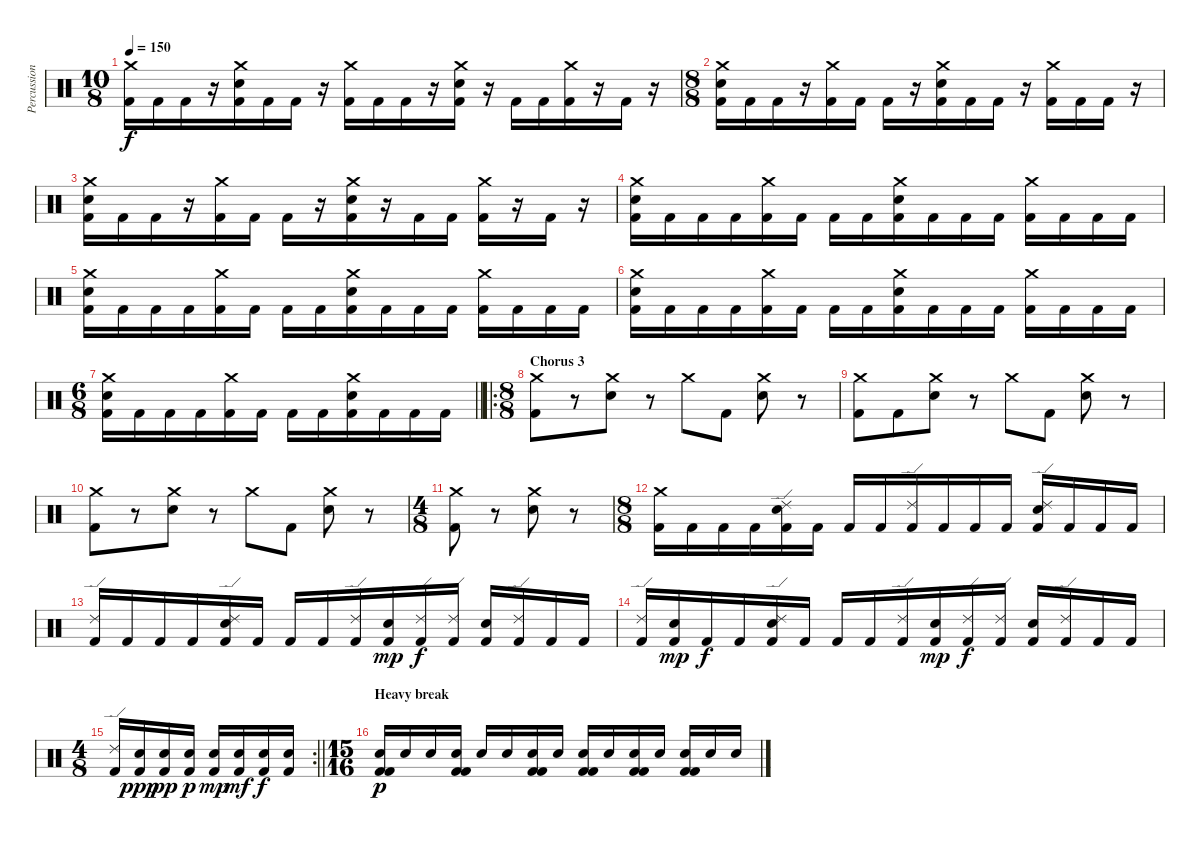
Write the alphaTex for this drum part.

\track ("Percussions" "Percussion") {instrument percussion}
\staff {score}
\articulation defaults
\ts (10 8)
\tempo 150
\clef neutral
\ks c
("Crash medium (hit)" "Kick (hit) 2").16{dy f} "Kick (hit) 2".16 "Kick (hit) 2".16 r.16 ("Crash medium (hit)" "Electric Snare (hit)" "Kick (hit) 2").16 "Kick (hit) 2".16 "Kick (hit) 2".16 r.16 ("Crash medium (hit)" "Kick (hit) 2").16 "Kick (hit) 2".16 "Kick (hit) 2".16 r.16 ("Crash medium (hit)" "Electric Snare (hit)" "Kick (hit) 2").16 r.16 "Kick (hit) 2".16 "Kick (hit) 2".16 ("Crash medium (hit)" "Kick (hit) 2").16 r.16 "Kick (hit) 2".16 r.16 |
\ts (8 8)
("Crash medium (hit)" "Electric Snare (hit)" "Kick (hit) 2").16 "Kick (hit) 2".16 "Kick (hit) 2".16 r.16 ("Crash medium (hit)" "Kick (hit) 2").16 "Kick (hit) 2".16 "Kick (hit) 2".16 r.16 ("Crash medium (hit)" "Electric Snare (hit)" "Kick (hit) 2").16 "Kick (hit) 2".16 "Kick (hit) 2".16 r.16 ("Crash medium (hit)" "Kick (hit) 2").16 "Kick (hit) 2".16 "Kick (hit) 2".16 r.16 |
("Crash medium (hit)" "Electric Snare (hit)" "Kick (hit) 2").16 "Kick (hit) 2".16 "Kick (hit) 2".16 r.16 ("Crash medium (hit)" "Kick (hit) 2").16 "Kick (hit) 2".16 "Kick (hit) 2".16 r.16 ("Crash medium (hit)" "Electric Snare (hit)" "Kick (hit) 2").16 r.16 "Kick (hit) 2".16 "Kick (hit) 2".16 ("Crash medium (hit)" "Kick (hit) 2").16 r.16 "Kick (hit) 2".16 r.16 |
("Crash medium (hit)" "Electric Snare (hit)" "Kick (hit) 2").16 "Kick (hit) 2".16 "Kick (hit) 2".16 "Kick (hit) 2".16 ("Crash medium (hit)" "Kick (hit) 2").16 "Kick (hit) 2".16 "Kick (hit) 2".16 "Kick (hit) 2".16 ("Crash medium (hit)" "Electric Snare (hit)" "Kick (hit) 2").16 "Kick (hit) 2".16 "Kick (hit) 2".16 "Kick (hit) 2".16 ("Crash medium (hit)" "Kick (hit) 2").16 "Kick (hit) 2".16 "Kick (hit) 2".16 "Kick (hit) 2".16 |
("Crash medium (hit)" "Electric Snare (hit)" "Kick (hit) 2").16 "Kick (hit) 2".16 "Kick (hit) 2".16 "Kick (hit) 2".16 ("Crash medium (hit)" "Kick (hit) 2").16 "Kick (hit) 2".16 "Kick (hit) 2".16 "Kick (hit) 2".16 ("Crash medium (hit)" "Electric Snare (hit)" "Kick (hit) 2").16 "Kick (hit) 2".16 "Kick (hit) 2".16 "Kick (hit) 2".16 ("Crash medium (hit)" "Kick (hit) 2").16 "Kick (hit) 2".16 "Kick (hit) 2".16 "Kick (hit) 2".16 |
("Crash medium (hit)" "Electric Snare (hit)" "Kick (hit) 2").16 "Kick (hit) 2".16 "Kick (hit) 2".16 "Kick (hit) 2".16 ("Crash medium (hit)" "Kick (hit) 2").16 "Kick (hit) 2".16 "Kick (hit) 2".16 "Kick (hit) 2".16 ("Crash medium (hit)" "Electric Snare (hit)" "Kick (hit) 2").16 "Kick (hit) 2".16 "Kick (hit) 2".16 "Kick (hit) 2".16 ("Crash medium (hit)" "Kick (hit) 2").16 "Kick (hit) 2".16 "Kick (hit) 2".16 "Kick (hit) 2".16 |
\ts (6 8)
\barLineRight lightlight
("Crash medium (hit)" "Electric Snare (hit)" "Kick (hit) 2").16 "Kick (hit) 2".16 "Kick (hit) 2".16 "Kick (hit) 2".16 ("Crash medium (hit)" "Kick (hit) 2").16 "Kick (hit) 2".16 "Kick (hit) 2".16 "Kick (hit) 2".16 ("Crash medium (hit)" "Electric Snare (hit)" "Kick (hit) 2").16 "Kick (hit) 2".16 "Kick (hit) 2".16 "Kick (hit) 2".16 |
\ro
\ts (8 8)
\section ("" "Chorus 3")
("Crash medium (hit)" "Kick (hit) 2").8 r.8 ("Crash medium (hit)" "Electric Snare (hit)").8 r.8 "Crash medium (hit)".8 "Kick (hit) 2".8 ("Crash medium (hit)" "Electric Snare (hit)").8 r.8 |
("Crash medium (hit)" "Kick (hit) 2").8 "Kick (hit) 2".8 ("Crash medium (hit)" "Electric Snare (hit)").8 r.8 "Crash medium (hit)".8 "Kick (hit) 2".8 ("Crash medium (hit)" "Electric Snare (hit)").8 r.8 |
("Crash medium (hit)" "Kick (hit) 2").8 r.8 ("Crash medium (hit)" "Electric Snare (hit)").8 r.8 "Crash medium (hit)".8 "Kick (hit) 2".8 ("Crash medium (hit)" "Electric Snare (hit)").8 r.8 |
\ts (4 8)
("Crash medium (hit)" "Kick (hit) 2").8 r.8 ("Crash medium (hit)" "Electric Snare (hit)").8 r.8 |
\ts (8 8)
("Crash medium (hit)" "Kick (hit) 2").16 "Kick (hit) 2".16 "Kick (hit) 2".16 "Kick (hit) 2".16 ("Ride (edge) 2" "Electric Snare (hit)" "Kick (hit) 2").16 "Kick (hit) 2".16 "Kick (hit) 2".16 "Kick (hit) 2".16 ("Ride (edge) 2" "Kick (hit) 2").16 "Kick (hit) 2".16 "Kick (hit) 2".16 "Kick (hit) 2".16 ("Ride (edge) 2" "Electric Snare (hit)" "Kick (hit) 2").16 "Kick (hit) 2".16 "Kick (hit) 2".16 "Kick (hit) 2".16 |
("Ride (edge) 2" "Kick (hit) 2").16 "Kick (hit) 2".16 "Kick (hit) 2".16 "Kick (hit) 2".16 ("Ride (edge) 2" "Electric Snare (hit)" "Kick (hit) 2").16 "Kick (hit) 2".16 "Kick (hit) 2".16 "Kick (hit) 2".16 ("Ride (edge) 2" "Kick (hit) 2").16 ("Electric Snare (hit)" "Kick (hit) 2").16{dy mp} ("Ride (edge) 2" "Kick (hit) 2").16{dy f} ("Ride (edge) 2" "Kick (hit) 2").16 ("Electric Snare (hit)" "Kick (hit) 2").16 ("Ride (edge) 2" "Kick (hit) 2").16 "Kick (hit) 2".16 "Kick (hit) 2".16 |
("Ride (edge) 2" "Kick (hit) 2").16 ("Electric Snare (hit)" "Kick (hit) 2").16{dy mp} "Kick (hit) 2".16{dy f} "Kick (hit) 2".16 ("Ride (edge) 2" "Electric Snare (hit)" "Kick (hit) 2").16 "Kick (hit) 2".16 "Kick (hit) 2".16 "Kick (hit) 2".16 ("Ride (edge) 2" "Kick (hit) 2").16 ("Electric Snare (hit)" "Kick (hit) 2").16{dy mp} ("Ride (edge) 2" "Kick (hit) 2").16{dy f} ("Ride (edge) 2" "Kick (hit) 2").16 ("Electric Snare (hit)" "Kick (hit) 2").16 ("Ride (edge) 2" "Kick (hit) 2").16 "Kick (hit) 2".16 "Kick (hit) 2".16 |
\rc 2
\ts (4 8)
\barLineRight lightlight
("Ride (edge) 2" "Kick (hit) 2").16 ("Electric Snare (hit)" "Kick (hit) 2").16{dy ppp} ("Electric Snare (hit)" "Kick (hit) 2").16{dy pp} ("Electric Snare (hit)" "Kick (hit) 2").16{dy p} ("Electric Snare (hit)" "Kick (hit) 2").16{dy mp} ("Electric Snare (hit)" "Kick (hit) 2").16{dy mf} ("Electric Snare (hit)" "Kick (hit) 2").16{dy f} ("Electric Snare (hit)" "Kick (hit) 2").16 |
\ts (15 16)
\section ("" "Heavy break")
("Electric Snare (hit)" "Kick (hit) 2" "Kick (hit) 2").16{dy p} "Electric Snare (hit)".16 "Electric Snare (hit)".16 ("Electric Snare (hit)" "Kick (hit) 2" "Kick (hit) 2").16 "Electric Snare (hit)".16 "Electric Snare (hit)".16 ("Electric Snare (hit)" "Kick (hit) 2" "Kick (hit) 2").16 "Electric Snare (hit)".16 ("Electric Snare (hit)" "Kick (hit) 2" "Kick (hit) 2").16 "Electric Snare (hit)".16 ("Electric Snare (hit)" "Kick (hit) 2" "Kick (hit) 2").16 "Electric Snare (hit)".16 ("Electric Snare (hit)" "Kick (hit) 2" "Kick (hit) 2").16 "Electric Snare (hit)".16 "Electric Snare (hit)".16
